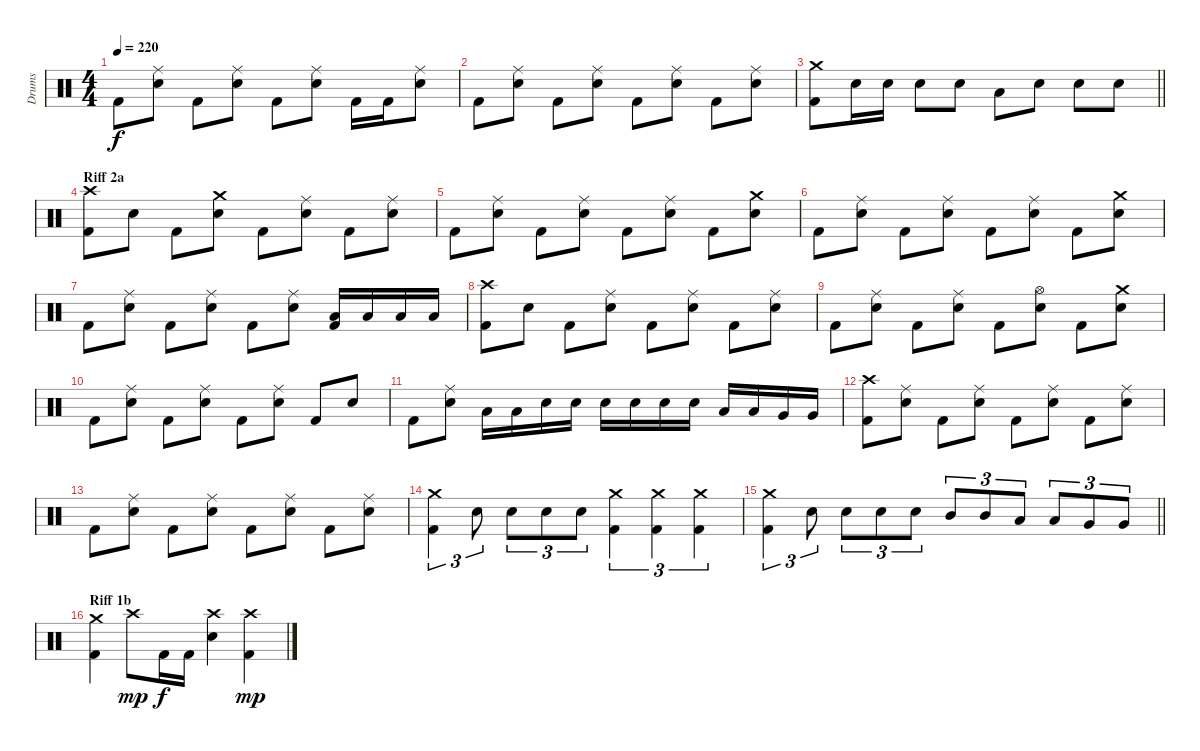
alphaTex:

\track ("Drums" "Drums") {instrument percussion}
\staff {score}
\articulation defaults
\ts (4 4)
\tempo 220
\clef neutral
\ks c "Kick (hit) 2".8{dy f}
("Electric Snare (hit)" "Ride (middle)").8 "Kick (hit) 2".8 ("Electric Snare (hit)" "Ride (middle)").8 "Kick (hit) 2".8 ("Electric Snare (hit)" "Ride (middle)").8 "Kick (hit) 2".16 "Kick (hit) 2".16 ("Electric Snare (hit)" "Ride (middle)").8 |
"Kick (hit) 2".8 ("Electric Snare (hit)" "Ride (middle)").8 "Kick (hit) 2".8 ("Electric Snare (hit)" "Ride (middle)").8 "Kick (hit) 2".8 ("Electric Snare (hit)" "Ride (middle)").8 "Kick (hit) 2".8 ("Electric Snare (hit)" "Ride (middle)").8 |
\barLineRight lightlight
("Crash medium (hit)" "Kick (hit) 2").8 "Electric Snare (hit)".16 "Electric Snare (hit)".16 "Electric Snare (hit)".8 "Electric Snare (hit)".8 "Low Tom (hit)".8 "Electric Snare (hit)".8 "Electric Snare (hit)".8 "Electric Snare (hit)".8 |
\section ("" "Riff 2a")
("Crash high (hit)" "Kick (hit) 2").8 "Electric Snare (hit)".8 "Kick (hit) 2".8 ("Crash medium (hit)" "Electric Snare (hit)").8 "Kick (hit) 2".8 ("Ride (middle)" "Electric Snare (hit)").8 "Kick (hit) 2".8 ("Electric Snare (hit)" "Ride (middle)").8 |
"Kick (hit) 2".8 ("Ride (middle)" "Electric Snare (hit)").8 "Kick (hit) 2".8 ("Electric Snare (hit)" "Ride (middle)").8 "Kick (hit) 2".8 ("Ride (middle)" "Electric Snare (hit)").8 "Kick (hit) 2".8 ("Electric Snare (hit)" "Crash medium (hit)").8 |
"Kick (hit) 2".8 ("Ride (middle)" "Electric Snare (hit)").8 "Kick (hit) 2".8 ("Electric Snare (hit)" "Ride (middle)").8 "Kick (hit) 2".8 ("Ride (middle)" "Electric Snare (hit)").8 "Kick (hit) 2".8 ("Electric Snare (hit)" "Crash medium (hit)").8 |
"Kick (hit) 2".8 ("Ride (middle)" "Electric Snare (hit)").8 "Kick (hit) 2".8 ("Electric Snare (hit)" "Ride (middle)").8 "Kick (hit) 2".8 ("Ride (middle)" "Electric Snare (hit)").8 ("Kick (hit) 2" "Low Tom (hit)").16 "Low Tom (hit)".16 "Low Tom (hit)".16 "Low Tom (hit)".16 |
("Crash high (hit)" "Kick (hit) 2").8 "Electric Snare (hit)".8 "Kick (hit) 2".8 ("Ride (middle)" "Electric Snare (hit)").8 "Kick (hit) 2".8 ("Ride (middle)" "Electric Snare (hit)").8 "Kick (hit) 2".8 ("Electric Snare (hit)" "Ride (middle)").8 |
"Kick (hit) 2".8 ("Ride (middle)" "Electric Snare (hit)").8 "Kick (hit) 2".8 ("Electric Snare (hit)" "Ride (middle)").8 "Kick (hit) 2".8 ("Hi-Hat (open)" "Electric Snare (hit)").8 "Kick (hit) 2".8 ("Electric Snare (hit)" "Crash medium (hit)").8 |
"Kick (hit) 2".8 ("Ride (middle)" "Electric Snare (hit)").8 "Kick (hit) 2".8 ("Electric Snare (hit)" "Ride (middle)").8 "Kick (hit) 2".8 ("Ride (middle)" "Electric Snare (hit)").8 "Kick (hit) 2".8 "Electric Snare (hit)".8 |
"Kick (hit) 2".8 ("Ride (middle)" "Electric Snare (hit)").8 "Low Tom (hit)".16 "Low Tom (hit)".16 "Electric Snare (hit)".16 "Electric Snare (hit)".16 "Electric Snare (hit)".16 "Electric Snare (hit)".16 "Electric Snare (hit)".16 "Electric Snare (hit)".16 "Low Tom (hit)".16 "Low Tom (hit)".16 "Very Low Tom (hit)".16 "Very Low Tom (hit)".16 |
("Crash high (hit)" "Kick (hit) 2").8 ("Ride (middle)" "Electric Snare (hit)").8 "Kick (hit) 2".8 ("Ride (middle)" "Electric Snare (hit)").8 "Kick (hit) 2".8 ("Ride (middle)" "Electric Snare (hit)").8 "Kick (hit) 2".8 ("Electric Snare (hit)" "Ride (middle)").8 |
"Kick (hit) 2".8 ("Ride (middle)" "Electric Snare (hit)").8 "Kick (hit) 2".8 ("Electric Snare (hit)" "Ride (middle)").8 "Kick (hit) 2".8 ("Ride (middle)" "Electric Snare (hit)").8 "Kick (hit) 2".8 ("Electric Snare (hit)" "Ride (middle)").8 |
("Crash medium (hit)" "Kick (hit) 2").4{tu (3 2)} "Electric Snare (hit)".8{tu (3 2)} "Electric Snare (hit)".8{tu (3 2)} "Electric Snare (hit)".8{tu (3 2)} "Electric Snare (hit)".8{tu (3 2)} ("Crash medium (hit)" "Kick (hit) 2").4{tu (3 2)} ("Crash medium (hit)" "Kick (hit) 2").4{tu (3 2)} ("Crash medium (hit)" "Kick (hit) 2").4{tu (3 2)} |
\barLineRight lightlight
("Crash medium (hit)" "Kick (hit) 2").4{tu (3 2)} "Electric Snare (hit)".8{tu (3 2)} "Electric Snare (hit)".8{tu (3 2)} "Electric Snare (hit)".8{tu (3 2)} "Electric Snare (hit)".8{tu (3 2)} "Mid Tom (hit)".8{tu (3 2)} "Mid Tom (hit)".8{tu (3 2)} "Low Tom (hit)".8{tu (3 2)} "Low Tom (hit)".8{tu (3 2)} "Very Low Tom (hit)".8{tu (3 2)} "Very Low Tom (hit)".8{tu (3 2)} |
\section ("" "Riff 1b")
("Kick (hit) 2" "Crash medium (hit)").4 "Crash high (hit)".8{dy mp} "Kick (hit) 2".16{dy f} "Kick (hit) 2".16 ("Crash high (hit)" "Electric Snare (hit)").4 ("Crash high (hit)" "Kick (hit) 2").4{dy mp}
